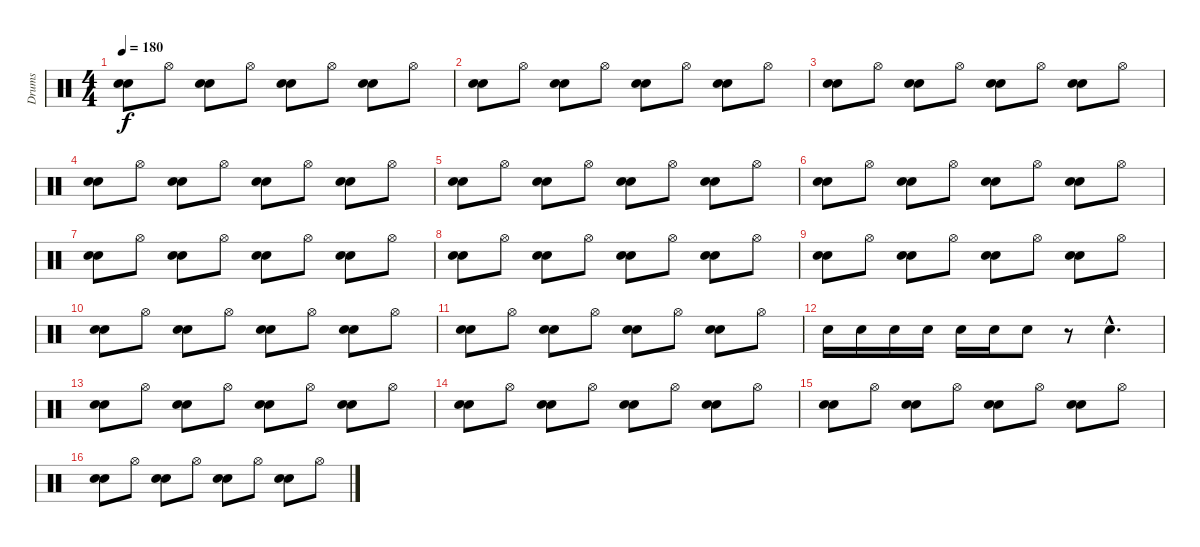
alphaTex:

\track ("Drums" "Drums") {instrument percussion}
\staff {score}
\articulation defaults
\ts (4 4)
\tempo 180
\clef neutral
\ks c
("Electric Snare (hit)" "Snare (hit) 2").8{dy f} "Hi-Hat (open)".8 ("Electric Snare (hit)" "Snare (hit) 2").8 "Hi-Hat (open)".8 ("Electric Snare (hit)" "Snare (hit) 2").8 "Hi-Hat (open)".8 ("Electric Snare (hit)" "Snare (hit) 2").8 "Hi-Hat (open)".8 |
("Electric Snare (hit)" "Snare (hit) 2").8 "Hi-Hat (open)".8 ("Electric Snare (hit)" "Snare (hit) 2").8 "Hi-Hat (open)".8 ("Electric Snare (hit)" "Snare (hit) 2").8 "Hi-Hat (open)".8 ("Electric Snare (hit)" "Snare (hit) 2").8 "Hi-Hat (open)".8 |
("Electric Snare (hit)" "Snare (hit) 2").8 "Hi-Hat (open)".8 ("Electric Snare (hit)" "Snare (hit) 2").8 "Hi-Hat (open)".8 ("Electric Snare (hit)" "Snare (hit) 2").8 "Hi-Hat (open)".8 ("Electric Snare (hit)" "Snare (hit) 2").8 "Hi-Hat (open)".8 |
("Electric Snare (hit)" "Snare (hit) 2").8 "Hi-Hat (open)".8 ("Electric Snare (hit)" "Snare (hit) 2").8 "Hi-Hat (open)".8 ("Electric Snare (hit)" "Snare (hit) 2").8 "Hi-Hat (open)".8 ("Electric Snare (hit)" "Snare (hit) 2").8 "Hi-Hat (open)".8 |
("Electric Snare (hit)" "Snare (hit) 2").8 "Hi-Hat (open)".8 ("Electric Snare (hit)" "Snare (hit) 2").8 "Hi-Hat (open)".8 ("Electric Snare (hit)" "Snare (hit) 2").8 "Hi-Hat (open)".8 ("Electric Snare (hit)" "Snare (hit) 2").8 "Hi-Hat (open)".8 |
("Electric Snare (hit)" "Snare (hit) 2").8 "Hi-Hat (open)".8 ("Electric Snare (hit)" "Snare (hit) 2").8 "Hi-Hat (open)".8 ("Electric Snare (hit)" "Snare (hit) 2").8 "Hi-Hat (open)".8 ("Electric Snare (hit)" "Snare (hit) 2").8 "Hi-Hat (open)".8 |
("Electric Snare (hit)" "Snare (hit) 2").8 "Hi-Hat (open)".8 ("Electric Snare (hit)" "Snare (hit) 2").8 "Hi-Hat (open)".8 ("Electric Snare (hit)" "Snare (hit) 2").8 "Hi-Hat (open)".8 ("Electric Snare (hit)" "Snare (hit) 2").8 "Hi-Hat (open)".8 |
("Electric Snare (hit)" "Snare (hit) 2").8 "Hi-Hat (open)".8 ("Electric Snare (hit)" "Snare (hit) 2").8 "Hi-Hat (open)".8 ("Electric Snare (hit)" "Snare (hit) 2").8 "Hi-Hat (open)".8 ("Electric Snare (hit)" "Snare (hit) 2").8 "Hi-Hat (open)".8 |
("Electric Snare (hit)" "Snare (hit) 2").8 "Hi-Hat (open)".8 ("Electric Snare (hit)" "Snare (hit) 2").8 "Hi-Hat (open)".8 ("Electric Snare (hit)" "Snare (hit) 2").8 "Hi-Hat (open)".8 ("Electric Snare (hit)" "Snare (hit) 2").8 "Hi-Hat (open)".8 |
("Electric Snare (hit)" "Snare (hit) 2").8 "Hi-Hat (open)".8 ("Electric Snare (hit)" "Snare (hit) 2").8 "Hi-Hat (open)".8 ("Electric Snare (hit)" "Snare (hit) 2").8 "Hi-Hat (open)".8 ("Electric Snare (hit)" "Snare (hit) 2").8 "Hi-Hat (open)".8 |
("Electric Snare (hit)" "Snare (hit) 2").8 "Hi-Hat (open)".8 ("Electric Snare (hit)" "Snare (hit) 2").8 "Hi-Hat (open)".8 ("Electric Snare (hit)" "Snare (hit) 2").8 "Hi-Hat (open)".8 ("Electric Snare (hit)" "Snare (hit) 2").8 "Hi-Hat (open)".8 |
"Electric Snare (hit)".16 "Electric Snare (hit)".16 "Electric Snare (hit)".16 "Electric Snare (hit)".16 "Electric Snare (hit)".16 "Electric Snare (hit)".16 "Electric Snare (hit)".8 r.8 "Electric Snare (hit)"{hac}.4{d} |
("Electric Snare (hit)" "Snare (hit) 2").8 "Hi-Hat (open)".8 ("Electric Snare (hit)" "Snare (hit) 2").8 "Hi-Hat (open)".8 ("Electric Snare (hit)" "Snare (hit) 2").8 "Hi-Hat (open)".8 ("Electric Snare (hit)" "Snare (hit) 2").8 "Hi-Hat (open)".8 |
("Electric Snare (hit)" "Snare (hit) 2").8 "Hi-Hat (open)".8 ("Electric Snare (hit)" "Snare (hit) 2").8 "Hi-Hat (open)".8 ("Electric Snare (hit)" "Snare (hit) 2").8 "Hi-Hat (open)".8 ("Electric Snare (hit)" "Snare (hit) 2").8 "Hi-Hat (open)".8 |
("Electric Snare (hit)" "Snare (hit) 2").8 "Hi-Hat (open)".8 ("Electric Snare (hit)" "Snare (hit) 2").8 "Hi-Hat (open)".8 ("Electric Snare (hit)" "Snare (hit) 2").8 "Hi-Hat (open)".8 ("Electric Snare (hit)" "Snare (hit) 2").8 "Hi-Hat (open)".8 |
("Electric Snare (hit)" "Snare (hit) 2").8 "Hi-Hat (open)".8 ("Electric Snare (hit)" "Snare (hit) 2").8 "Hi-Hat (open)".8 ("Electric Snare (hit)" "Snare (hit) 2").8 "Hi-Hat (open)".8 ("Electric Snare (hit)" "Snare (hit) 2").8 "Hi-Hat (open)".8
